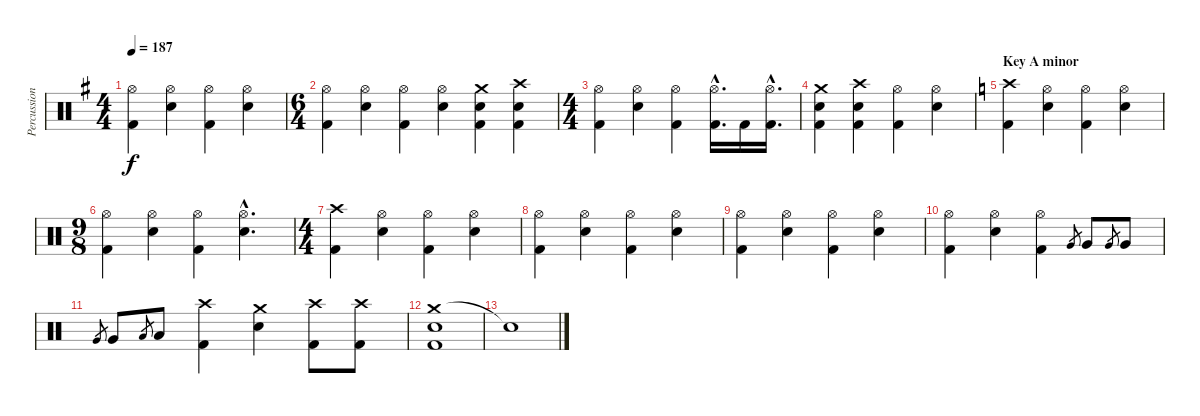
\track ("Percussion" "Percussion") {instrument percussion}
\staff {score}
\articulation defaults
\ts (4 4)
\tempo 187
\clef neutral
\ks eminor
("Hi-Hat (open)" "Kick (hit) 2").4{dy f} ("Hi-Hat (open)" "Snare (hit) 2").4 ("Hi-Hat (open)" "Kick (hit) 2").4 ("Hi-Hat (open)" "Snare (hit) 2").4 |
\ts (6 4)
("Hi-Hat (open)" "Kick (hit) 2").4 ("Hi-Hat (open)" "Snare (hit) 2").4 ("Hi-Hat (open)" "Kick (hit) 2").4 ("Hi-Hat (open)" "Snare (hit) 2").4 ("Crash medium (hit)" "Snare (hit) 2" "Kick (hit) 2").4 ("Crash high (hit)" "Snare (hit) 2" "Kick (hit) 2").4 |
\ts (4 4)
("Hi-Hat (open)" "Kick (hit) 2").4 ("Hi-Hat (open)" "Snare (hit) 2").4 ("Hi-Hat (open)" "Kick (hit) 2").4 ("Hi-Hat (open)"{hac} "Kick (hit) 2"{hac}).16{d} "Kick (hit) 2".16 ("Hi-Hat (open)"{hac} "Kick (hit) 2"{hac}).16{d} |
("Crash medium (hit)" "Snare (hit) 2" "Kick (hit) 2").4 ("Crash high (hit)" "Snare (hit) 2" "Kick (hit) 2").4 ("Hi-Hat (open)" "Kick (hit) 2").4 ("Hi-Hat (open)" "Snare (hit) 2").4 |
\section ("" "Key A minor")
\ks aminor
("Crash high (hit)" "Kick (hit) 2").4 ("Hi-Hat (open)" "Snare (hit) 2").4 ("Hi-Hat (open)" "Kick (hit) 2").4 ("Hi-Hat (open)" "Snare (hit) 2").4 |
\ts (9 8)
("Hi-Hat (open)" "Kick (hit) 2").4 ("Hi-Hat (open)" "Snare (hit) 2").4 ("Hi-Hat (open)" "Kick (hit) 2").4 ("Hi-Hat (open)"{hac} "Snare (hit) 2"{hac}).4{d} |
\ts (4 4)
("Crash high (hit)" "Kick (hit) 2").4 ("Hi-Hat (open)" "Snare (hit) 2").4 ("Hi-Hat (open)" "Kick (hit) 2").4 ("Hi-Hat (open)" "Snare (hit) 2").4 |
("Hi-Hat (open)" "Kick (hit) 2").4 ("Hi-Hat (open)" "Snare (hit) 2").4 ("Hi-Hat (open)" "Kick (hit) 2").4 ("Hi-Hat (open)" "Snare (hit) 2").4 |
("Hi-Hat (open)" "Kick (hit) 2").4 ("Hi-Hat (open)" "Snare (hit) 2").4 ("Hi-Hat (open)" "Kick (hit) 2").4 ("Hi-Hat (open)" "Snare (hit) 2").4 |
("Hi-Hat (open)" "Kick (hit) 2").4 ("Hi-Hat (open)" "Snare (hit) 2").4 ("Hi-Hat (open)" "Kick (hit) 2").4 "Very Low Tom (hit)".8{gr} "Very Low Tom (hit)".8 "Very Low Tom (hit)".8{gr} "Very Low Tom (hit)".8 |
"Very Low Tom (hit)".8{gr} "Very Low Tom (hit)".8 "Low Floor Tom (hit)".8{gr} "Low Floor Tom (hit)".8 ("Crash high (hit)" "Kick (hit) 2").4 ("Crash medium (hit)" "Snare (hit) 2").4 ("Crash high (hit)" "Kick (hit) 2").8 ("Crash high (hit)" "Kick (hit) 2").8 |
("Crash medium (hit)" "Snare (hit) 2" "Kick (hit) 2").1 |
"Snare (hit)"{t}.1
